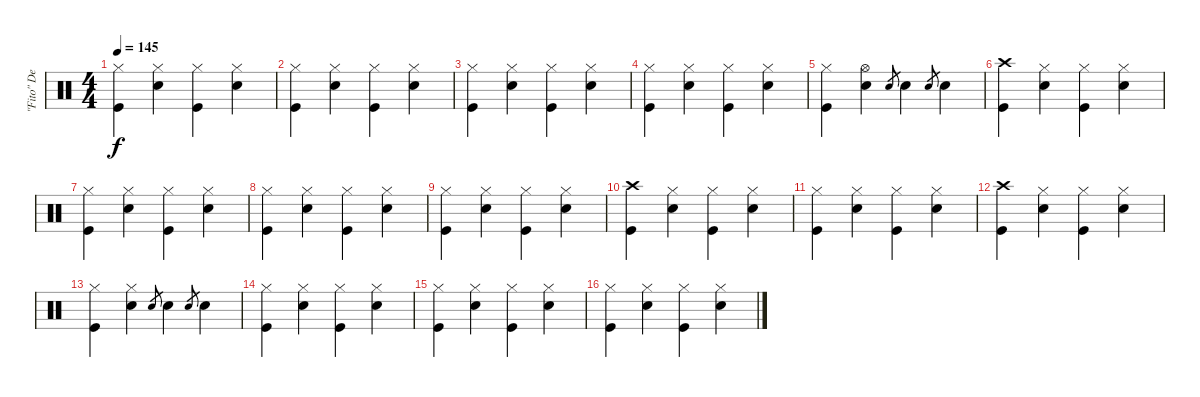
\track ("\"Fito\" De La Parra" "\"Fito\" De ") {instrument percussion}
\staff {score}
\articulation defaults
\ts (4 4)
\tempo 145
\clef neutral
\ks c
("Hi-Hat (closed)" "Kick (hit)").4{dy f} ("Hi-Hat (closed)" "Snare (hit) 2").4 ("Hi-Hat (closed)" "Kick (hit)").4 ("Hi-Hat (closed)" "Snare (hit) 2").4 |
("Hi-Hat (closed)" "Kick (hit)").4 ("Hi-Hat (closed)" "Snare (hit) 2").4 ("Hi-Hat (closed)" "Kick (hit)").4 ("Hi-Hat (closed)" "Snare (hit) 2").4 |
("Hi-Hat (closed)" "Kick (hit)").4 ("Hi-Hat (closed)" "Snare (hit) 2").4 ("Hi-Hat (closed)" "Kick (hit)").4 ("Hi-Hat (closed)" "Snare (hit) 2").4 |
("Hi-Hat (closed)" "Kick (hit)").4 ("Hi-Hat (closed)" "Snare (hit) 2").4 ("Hi-Hat (closed)" "Kick (hit)").4 ("Hi-Hat (closed)" "Snare (hit) 2").4 |
("Hi-Hat (closed)" "Kick (hit)").4 ("Hi-Hat (open)" "Snare (hit) 2").4 "Snare (hit) 2".8{gr} "Snare (hit) 2".4 "Snare (hit) 2".8{gr} "Snare (hit) 2".4 |
("Crash high (hit)" "Kick (hit)").4 ("Hi-Hat (closed)" "Snare (hit) 2").4 ("Hi-Hat (closed)" "Kick (hit)").4 ("Hi-Hat (closed)" "Snare (hit) 2").4 |
("Hi-Hat (closed)" "Kick (hit)").4 ("Hi-Hat (closed)" "Snare (hit) 2").4 ("Hi-Hat (closed)" "Kick (hit)").4 ("Hi-Hat (closed)" "Snare (hit) 2").4 |
("Hi-Hat (closed)" "Kick (hit)").4 ("Hi-Hat (closed)" "Snare (hit) 2").4 ("Hi-Hat (closed)" "Kick (hit)").4 ("Hi-Hat (closed)" "Snare (hit) 2").4 |
("Hi-Hat (closed)" "Kick (hit)").4 ("Hi-Hat (closed)" "Snare (hit) 2").4 ("Hi-Hat (closed)" "Kick (hit)").4 ("Hi-Hat (closed)" "Snare (hit) 2").4 |
("Crash high (hit)" "Kick (hit)").4 ("Hi-Hat (closed)" "Snare (hit) 2").4 ("Hi-Hat (closed)" "Kick (hit)").4 ("Hi-Hat (closed)" "Snare (hit) 2").4 |
("Hi-Hat (closed)" "Kick (hit)").4 ("Hi-Hat (closed)" "Snare (hit) 2").4 ("Hi-Hat (closed)" "Kick (hit)").4 ("Hi-Hat (closed)" "Snare (hit) 2").4 |
("Crash high (hit)" "Kick (hit)").4 ("Hi-Hat (closed)" "Snare (hit) 2").4 ("Hi-Hat (closed)" "Kick (hit)").4 ("Hi-Hat (closed)" "Snare (hit) 2").4 |
("Hi-Hat (closed)" "Kick (hit)").4 ("Hi-Hat (closed)" "Snare (hit) 2").4 "Snare (hit) 2".8{gr} "Snare (hit) 2".4 "Snare (hit) 2".8{gr} "Snare (hit) 2".4 |
("Hi-Hat (closed)" "Kick (hit)").4 ("Hi-Hat (closed)" "Snare (hit) 2").4 ("Hi-Hat (closed)" "Kick (hit)").4 ("Hi-Hat (closed)" "Snare (hit) 2").4 |
("Hi-Hat (closed)" "Kick (hit)").4 ("Hi-Hat (closed)" "Snare (hit) 2").4 ("Hi-Hat (closed)" "Kick (hit)").4 ("Hi-Hat (closed)" "Snare (hit) 2").4 |
("Hi-Hat (closed)" "Kick (hit)").4 ("Hi-Hat (closed)" "Snare (hit) 2").4 ("Hi-Hat (closed)" "Kick (hit)").4 ("Hi-Hat (closed)" "Snare (hit) 2").4
